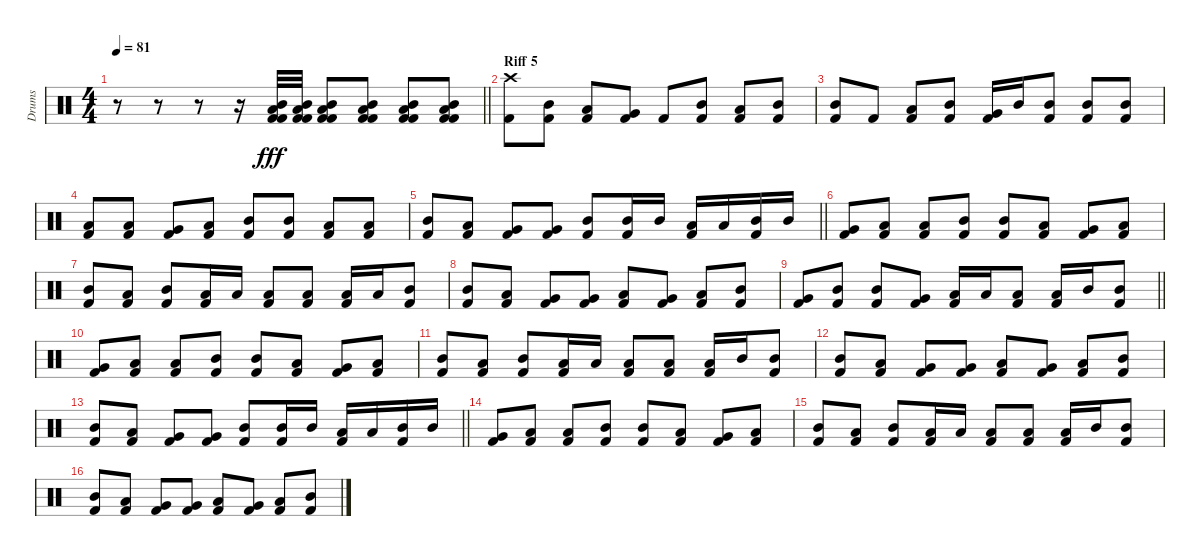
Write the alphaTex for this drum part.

\track ("Drums" "Drums") {instrument percussion}
\staff {score}
\articulation defaults
\ts (4 4)
\tempo 81
\clef neutral
\barLineRight lightlight
\ks c
r.8{dy fff} r.8 r.8 r.16 ("Mid Tom (hit)" "Low Tom (hit)" "Kick (hit) 2" "Kick (hit) 2").32 ("Mid Tom (hit)" "Low Tom (hit)" "Kick (hit) 2" "Kick (hit) 2").32 ("Mid Tom (hit)" "Low Tom (hit)" "Kick (hit) 2" "Kick (hit) 2").8 ("Mid Tom (hit)" "Low Tom (hit)" "Kick (hit) 2" "Kick (hit) 2").8 ("Mid Tom (hit)" "Low Tom (hit)" "Kick (hit) 2" "Kick (hit) 2").8 ("Mid Tom (hit)" "Low Tom (hit)" "Kick (hit) 2" "Kick (hit) 2").8 |
\section ("" "Riff 5")
("Crash high (hit)" "Kick (hit) 2").8 ("Mid Tom (hit)" "Kick (hit) 2").8 ("Low Tom (hit)" "Kick (hit) 2").8 ("Very Low Tom (hit)" "Kick (hit) 2").8 "Kick (hit) 2".8 ("Mid Tom (hit)" "Kick (hit) 2").8 ("Low Tom (hit)" "Kick (hit) 2").8 ("Mid Tom (hit)" "Kick (hit) 2").8 |
("Mid Tom (hit)" "Kick (hit) 2").8 "Kick (hit) 2".8 ("Low Tom (hit)" "Kick (hit) 2").8 ("Mid Tom (hit)" "Kick (hit) 2").8 ("Very Low Tom (hit)" "Kick (hit) 2").16 "Mid Tom (hit)".16 ("Mid Tom (hit)" "Kick (hit) 2").8 ("Mid Tom (hit)" "Kick (hit) 2").8 ("Mid Tom (hit)" "Kick (hit) 2").8 |
("Low Tom (hit)" "Kick (hit) 2").8 ("Low Tom (hit)" "Kick (hit) 2").8 ("Very Low Tom (hit)" "Kick (hit) 2").8 ("Low Tom (hit)" "Kick (hit) 2").8 ("Mid Tom (hit)" "Kick (hit) 2").8 ("Mid Tom (hit)" "Kick (hit) 2").8 ("Low Tom (hit)" "Kick (hit) 2").8 ("Low Tom (hit)" "Kick (hit) 2").8 |
\barLineRight lightlight
("Mid Tom (hit)" "Kick (hit) 2").8 ("Low Tom (hit)" "Kick (hit) 2").8 ("Very Low Tom (hit)" "Kick (hit) 2").8 ("Very Low Tom (hit)" "Kick (hit) 2").8 ("Mid Tom (hit)" "Kick (hit) 2").8 ("Mid Tom (hit)" "Kick (hit) 2").16 "Mid Tom (hit)".16 ("Low Tom (hit)" "Kick (hit) 2").16 "Low Tom (hit)".16 ("Mid Tom (hit)" "Kick (hit) 2").16 "Mid Tom (hit)".16 |
("Very Low Tom (hit)" "Kick (hit) 2").8 ("Low Tom (hit)" "Kick (hit) 2").8 ("Low Tom (hit)" "Kick (hit) 2").8 ("Mid Tom (hit)" "Kick (hit) 2").8 ("Mid Tom (hit)" "Kick (hit) 2").8 ("Low Tom (hit)" "Kick (hit) 2").8 ("Very Low Tom (hit)" "Kick (hit) 2").8 ("Low Floor Tom (hit)" "Kick (hit) 2").8 |
("Mid Tom (hit)" "Kick (hit) 2").8 ("Low Tom (hit)" "Kick (hit) 2").8 ("Mid Tom (hit)" "Kick (hit) 2").8 ("Low Tom (hit)" "Kick (hit) 2").16 "Low Tom (hit)".16 ("Low Tom (hit)" "Kick (hit) 2").8 ("Low Tom (hit)" "Kick (hit) 2").8 ("Low Tom (hit)" "Kick (hit) 2").16 "Low Tom (hit)".16 ("Mid Tom (hit)" "Kick (hit) 2").8 |
("Mid Tom (hit)" "Kick (hit) 2").8 ("Low Tom (hit)" "Kick (hit) 2").8 ("Very Low Tom (hit)" "Kick (hit) 2").8 ("Very Low Tom (hit)" "Kick (hit) 2").8 ("Low Tom (hit)" "Kick (hit) 2").8 ("Very Low Tom (hit)" "Kick (hit) 2").8 ("Low Tom (hit)" "Kick (hit) 2").8 ("Mid Tom (hit)" "Kick (hit) 2").8 |
\barLineRight lightlight
("Very Low Tom (hit)" "Kick (hit) 2").8 ("Mid Tom (hit)" "Kick (hit) 2").8 ("Mid Tom (hit)" "Kick (hit) 2").8 ("Very Low Tom (hit)" "Kick (hit) 2").8 ("Low Tom (hit)" "Kick (hit) 2").16 "Low Tom (hit)".16 ("Low Floor Tom (hit)" "Kick (hit) 2").8 ("Low Tom (hit)" "Kick (hit) 2").16 "Mid Tom (hit)".16 ("Mid Tom (hit)" "Kick (hit) 2").8 |
("Very Low Tom (hit)" "Kick (hit) 2").8 ("Low Tom (hit)" "Kick (hit) 2").8 ("Low Tom (hit)" "Kick (hit) 2").8 ("Mid Tom (hit)" "Kick (hit) 2").8 ("Mid Tom (hit)" "Kick (hit) 2").8 ("Low Tom (hit)" "Kick (hit) 2").8 ("Very Low Tom (hit)" "Kick (hit) 2").8 ("Low Floor Tom (hit)" "Kick (hit) 2").8 |
("Mid Tom (hit)" "Kick (hit) 2").8 ("Low Tom (hit)" "Kick (hit) 2").8 ("Mid Tom (hit)" "Kick (hit) 2").8 ("Low Tom (hit)" "Kick (hit) 2").16 "Low Tom (hit)".16 ("Low Tom (hit)" "Kick (hit) 2").8 ("Low Tom (hit)" "Kick (hit) 2").8 ("Low Tom (hit)" "Kick (hit) 2").16 "Mid Tom (hit)".16 ("Mid Tom (hit)" "Kick (hit) 2").8 |
("Mid Tom (hit)" "Kick (hit) 2").8 ("Low Tom (hit)" "Kick (hit) 2").8 ("Very Low Tom (hit)" "Kick (hit) 2").8 ("Very Low Tom (hit)" "Kick (hit) 2").8 ("Low Tom (hit)" "Kick (hit) 2").8 ("Very Low Tom (hit)" "Kick (hit) 2").8 ("Low Tom (hit)" "Kick (hit) 2").8 ("Mid Tom (hit)" "Kick (hit) 2").8 |
\barLineRight lightlight
("Mid Tom (hit)" "Kick (hit) 2").8 ("Low Tom (hit)" "Kick (hit) 2").8 ("Very Low Tom (hit)" "Kick (hit) 2").8 ("Very Low Tom (hit)" "Kick (hit) 2").8 ("Mid Tom (hit)" "Kick (hit) 2").8 ("Mid Tom (hit)" "Kick (hit) 2").16 "Mid Tom (hit)".16 ("Low Tom (hit)" "Kick (hit) 2").16 "Low Tom (hit)".16 ("Mid Tom (hit)" "Kick (hit) 2").16 "Mid Tom (hit)".16 |
("Very Low Tom (hit)" "Kick (hit) 2").8 ("Low Tom (hit)" "Kick (hit) 2").8 ("Low Tom (hit)" "Kick (hit) 2").8 ("Mid Tom (hit)" "Kick (hit) 2").8 ("Mid Tom (hit)" "Kick (hit) 2").8 ("Low Tom (hit)" "Kick (hit) 2").8 ("Very Low Tom (hit)" "Kick (hit) 2").8 ("Low Floor Tom (hit)" "Kick (hit) 2").8 |
("Mid Tom (hit)" "Kick (hit) 2").8 ("Low Tom (hit)" "Kick (hit) 2").8 ("Mid Tom (hit)" "Kick (hit) 2").8 ("Low Tom (hit)" "Kick (hit) 2").16 "Low Tom (hit)".16 ("Low Tom (hit)" "Kick (hit) 2").8 ("Low Tom (hit)" "Kick (hit) 2").8 ("Low Tom (hit)" "Kick (hit) 2").16 "Mid Tom (hit)".16 ("Mid Tom (hit)" "Kick (hit) 2").8 |
("Mid Tom (hit)" "Kick (hit) 2").8 ("Low Tom (hit)" "Kick (hit) 2").8 ("Very Low Tom (hit)" "Kick (hit) 2").8 ("Very Low Tom (hit)" "Kick (hit) 2").8 ("Low Tom (hit)" "Kick (hit) 2").8 ("Very Low Tom (hit)" "Kick (hit) 2").8 ("Low Tom (hit)" "Kick (hit) 2").8 ("Mid Tom (hit)" "Kick (hit) 2").8
